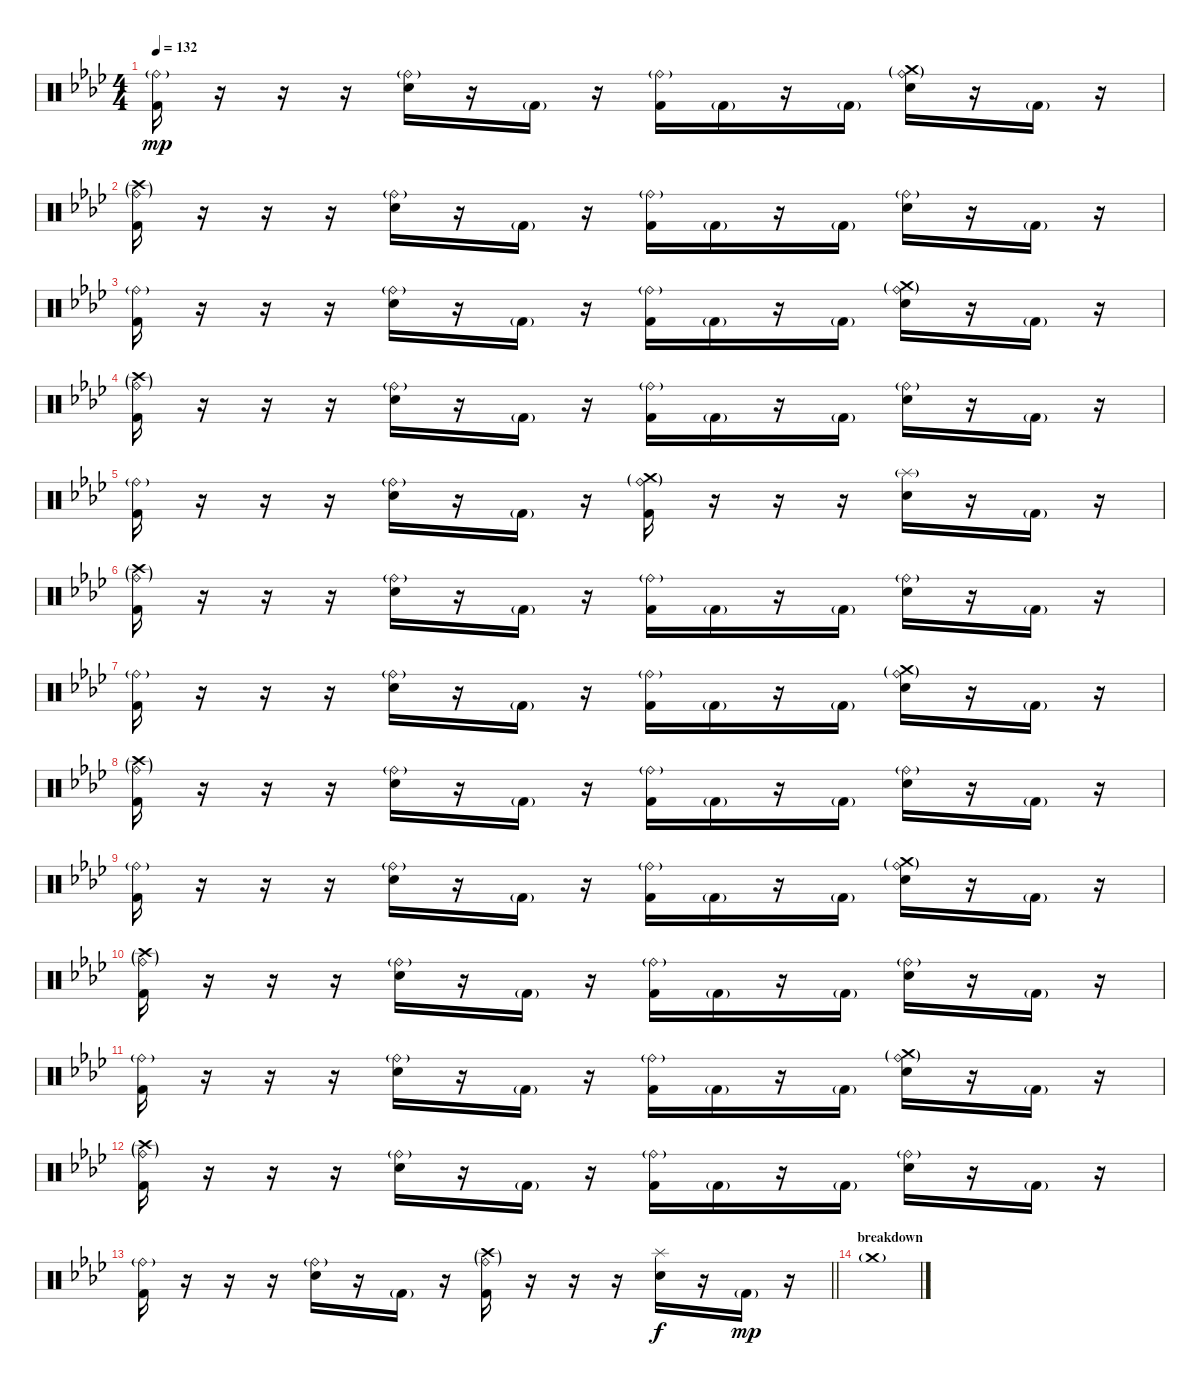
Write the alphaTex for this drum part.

\track "" {instrument percussion}
\staff {score}
\articulation defaults
\ts (4 4)
\tempo 132
\clef neutral
\ks fminor
("Kick (hit) 2" "Ride (bell)"{g}).16{dy mp} r.16 r.16 r.16 ("Electric Snare (hit)" "Ride (bell)"{g}).16 r.16 "Kick (hit) 2"{g}.16 r.16 ("Kick (hit) 2" "Ride (bell)"{g}).16 "Kick (hit) 2"{g}.16 r.16 "Kick (hit) 2"{g}.16 ("Electric Snare (hit)" "Ride (bell)"{g} "Crash medium (hit)"{g}).16 r.16 "Kick (hit) 2"{g}.16 r.16 |
("Kick (hit) 2" "Ride (bell)"{g} "Crash high (hit)"{g}).16 r.16 r.16 r.16 ("Electric Snare (hit)" "Ride (bell)"{g}).16 r.16 "Kick (hit) 2"{g}.16 r.16 ("Kick (hit) 2" "Ride (bell)"{g}).16 "Kick (hit) 2"{g}.16 r.16 "Kick (hit) 2"{g}.16 ("Electric Snare (hit)" "Ride (bell)"{g}).16 r.16 "Kick (hit) 2"{g}.16 r.16 |
("Kick (hit) 2" "Ride (bell)"{g}).16 r.16 r.16 r.16 ("Electric Snare (hit)" "Ride (bell)"{g}).16 r.16 "Kick (hit) 2"{g}.16 r.16 ("Kick (hit) 2" "Ride (bell)"{g}).16 "Kick (hit) 2"{g}.16 r.16 "Kick (hit) 2"{g}.16 ("Electric Snare (hit)" "Ride (bell)"{g} "Crash medium (hit)"{g}).16 r.16 "Kick (hit) 2"{g}.16 r.16 |
("Kick (hit) 2" "Ride (bell)"{g} "Crash high (hit)"{g}).16 r.16 r.16 r.16 ("Electric Snare (hit)" "Ride (bell)"{g}).16 r.16 "Kick (hit) 2"{g}.16 r.16 ("Kick (hit) 2" "Ride (bell)"{g}).16 "Kick (hit) 2"{g}.16 r.16 "Kick (hit) 2"{g}.16 ("Electric Snare (hit)" "Ride (bell)"{g}).16 r.16 "Kick (hit) 2"{g}.16 r.16 |
("Kick (hit) 2" "Ride (bell)"{g}).16 r.16 r.16 r.16 ("Electric Snare (hit)" "Ride (bell)"{g}).16 r.16 "Kick (hit) 2"{g}.16 r.16 ("Kick (hit) 2" "Ride (bell)"{g} "Crash medium (hit)"{g}).16 r.16 r.16 r.16 ("Electric Snare (hit)" "Splash (hit)"{g}).16 r.16 "Kick (hit) 2"{g}.16 r.16 |
("Kick (hit) 2" "Ride (bell)"{g} "Crash high (hit)"{g}).16 r.16 r.16 r.16 ("Electric Snare (hit)" "Ride (bell)"{g}).16 r.16 "Kick (hit) 2"{g}.16 r.16 ("Kick (hit) 2" "Ride (bell)"{g}).16 "Kick (hit) 2"{g}.16 r.16 "Kick (hit) 2"{g}.16 ("Electric Snare (hit)" "Ride (bell)"{g}).16 r.16 "Kick (hit) 2"{g}.16 r.16 |
("Kick (hit) 2" "Ride (bell)"{g}).16 r.16 r.16 r.16 ("Electric Snare (hit)" "Ride (bell)"{g}).16 r.16 "Kick (hit) 2"{g}.16 r.16 ("Kick (hit) 2" "Ride (bell)"{g}).16 "Kick (hit) 2"{g}.16 r.16 "Kick (hit) 2"{g}.16 ("Electric Snare (hit)" "Ride (bell)"{g} "Crash medium (hit)"{g}).16 r.16 "Kick (hit) 2"{g}.16 r.16 |
("Kick (hit) 2" "Ride (bell)"{g} "Crash high (hit)"{g}).16 r.16 r.16 r.16 ("Electric Snare (hit)" "Ride (bell)"{g}).16 r.16 "Kick (hit) 2"{g}.16 r.16 ("Kick (hit) 2" "Ride (bell)"{g}).16 "Kick (hit) 2"{g}.16 r.16 "Kick (hit) 2"{g}.16 ("Electric Snare (hit)" "Ride (bell)"{g}).16 r.16 "Kick (hit) 2"{g}.16 r.16 |
("Kick (hit) 2" "Ride (bell)"{g}).16 r.16 r.16 r.16 ("Electric Snare (hit)" "Ride (bell)"{g}).16 r.16 "Kick (hit) 2"{g}.16 r.16 ("Kick (hit) 2" "Ride (bell)"{g}).16 "Kick (hit) 2"{g}.16 r.16 "Kick (hit) 2"{g}.16 ("Electric Snare (hit)" "Ride (bell)"{g} "Crash medium (hit)"{g}).16 r.16 "Kick (hit) 2"{g}.16 r.16 |
("Kick (hit) 2" "Ride (bell)"{g} "Crash high (hit)"{g}).16 r.16 r.16 r.16 ("Electric Snare (hit)" "Ride (bell)"{g}).16 r.16 "Kick (hit) 2"{g}.16 r.16 ("Kick (hit) 2" "Ride (bell)"{g}).16 "Kick (hit) 2"{g}.16 r.16 "Kick (hit) 2"{g}.16 ("Electric Snare (hit)" "Ride (bell)"{g}).16 r.16 "Kick (hit) 2"{g}.16 r.16 |
("Kick (hit) 2" "Ride (bell)"{g}).16 r.16 r.16 r.16 ("Electric Snare (hit)" "Ride (bell)"{g}).16 r.16 "Kick (hit) 2"{g}.16 r.16 ("Kick (hit) 2" "Ride (bell)"{g}).16 "Kick (hit) 2"{g}.16 r.16 "Kick (hit) 2"{g}.16 ("Electric Snare (hit)" "Ride (bell)"{g} "Crash medium (hit)"{g}).16 r.16 "Kick (hit) 2"{g}.16 r.16 |
("Kick (hit) 2" "Ride (bell)"{g} "Crash high (hit)"{g}).16 r.16 r.16 r.16 ("Electric Snare (hit)" "Ride (bell)"{g}).16 r.16 "Kick (hit) 2"{g}.16 r.16 ("Kick (hit) 2" "Ride (bell)"{g}).16 "Kick (hit) 2"{g}.16 r.16 "Kick (hit) 2"{g}.16 ("Electric Snare (hit)" "Ride (bell)"{g}).16 r.16 "Kick (hit) 2"{g}.16 r.16 |
\barLineRight lightlight
("Kick (hit) 2" "Ride (bell)"{g}).16 r.16 r.16 r.16 ("Electric Snare (hit)" "Ride (bell)"{g}).16 r.16 "Kick (hit) 2"{g}.16 r.16 ("Kick (hit) 2" "Ride (bell)"{g} "Crash high (hit)"{g}).16 r.16 r.16 r.16 ("Electric Snare (hit)" "Splash (hit)").16{dy f} r.16 "Kick (hit) 2"{g}.16{dy mp} r.16 |
\section ("" "breakdown")
"Crash medium (hit)"{g}.1
